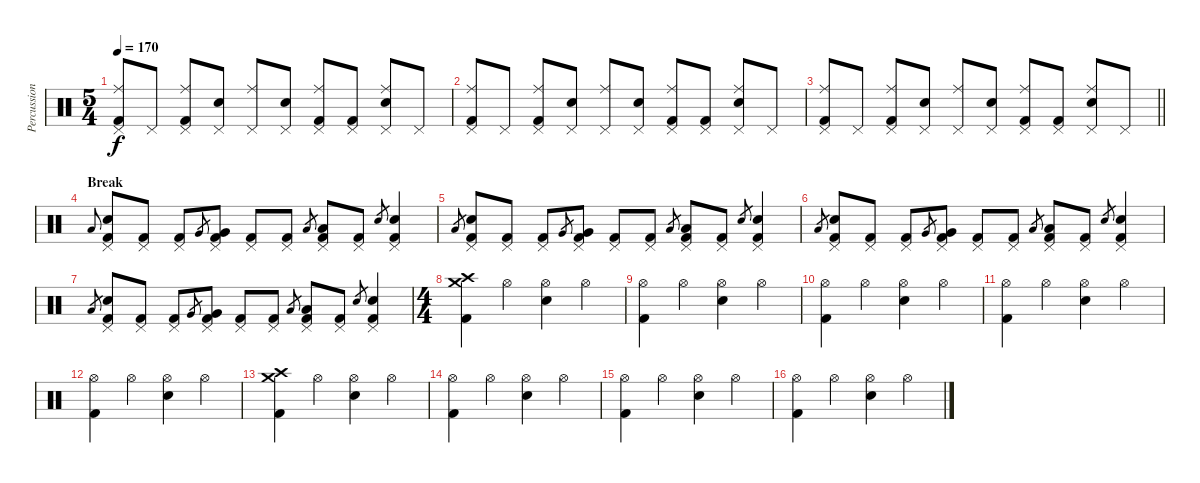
\track ("Percussion" "Percussion") {instrument percussion}
\staff {score}
\articulation defaults
\ts (5 4)
\tempo 170
\clef neutral
\ks c
("Ride (middle)" "Pedal Hi-Hat (hit)" "Kick (hit) 2").8{dy f} "Pedal Hi-Hat (hit)".8 ("Ride (middle)" "Pedal Hi-Hat (hit)" "Kick (hit) 2").8 ("Electric Snare (hit)" "Pedal Hi-Hat (hit)").8 ("Ride (middle)" "Pedal Hi-Hat (hit)").8 ("Electric Snare (hit)" "Pedal Hi-Hat (hit)").8 ("Ride (middle)" "Pedal Hi-Hat (hit)" "Kick (hit) 2").8 ("Pedal Hi-Hat (hit)" "Kick (hit) 2").8 ("Ride (middle)" "Electric Snare (hit)" "Pedal Hi-Hat (hit)").8 "Pedal Hi-Hat (hit)".8 |
("Ride (middle)" "Pedal Hi-Hat (hit)" "Kick (hit) 2").8 "Pedal Hi-Hat (hit)".8 ("Ride (middle)" "Pedal Hi-Hat (hit)" "Kick (hit) 2").8 ("Electric Snare (hit)" "Pedal Hi-Hat (hit)").8 ("Ride (middle)" "Pedal Hi-Hat (hit)").8 ("Electric Snare (hit)" "Pedal Hi-Hat (hit)").8 ("Ride (middle)" "Pedal Hi-Hat (hit)" "Kick (hit) 2").8 ("Pedal Hi-Hat (hit)" "Kick (hit) 2").8 ("Ride (middle)" "Electric Snare (hit)" "Pedal Hi-Hat (hit)").8 "Pedal Hi-Hat (hit)".8 |
\barLineRight lightlight
("Ride (middle)" "Pedal Hi-Hat (hit)" "Kick (hit) 2").8 "Pedal Hi-Hat (hit)".8 ("Ride (middle)" "Pedal Hi-Hat (hit)" "Kick (hit) 2").8 ("Electric Snare (hit)" "Pedal Hi-Hat (hit)").8 ("Ride (middle)" "Pedal Hi-Hat (hit)").8 ("Electric Snare (hit)" "Pedal Hi-Hat (hit)").8 ("Ride (middle)" "Pedal Hi-Hat (hit)" "Kick (hit) 2").8 ("Pedal Hi-Hat (hit)" "Kick (hit) 2").8 ("Ride (middle)" "Electric Snare (hit)" "Pedal Hi-Hat (hit)").8 "Pedal Hi-Hat (hit)".8 |
\section ("" "Break")
"Low Tom (hit)".8{gr onbeat} ("Electric Snare (hit)" "Pedal Hi-Hat (hit)" "Kick (hit) 2").8 ("Pedal Hi-Hat (hit)" "Kick (hit) 2").8 ("Pedal Hi-Hat (hit)" "Kick (hit) 2").8 "Very Low Tom (hit)".8{gr} ("Very Low Tom (hit)" "Pedal Hi-Hat (hit)" "Kick (hit) 2").8 ("Pedal Hi-Hat (hit)" "Kick (hit) 2").8 ("Pedal Hi-Hat (hit)" "Kick (hit) 2").8 "Low Floor Tom (hit)".8{gr} ("Low Floor Tom (hit)" "Pedal Hi-Hat (hit)" "Kick (hit) 2").8 ("Pedal Hi-Hat (hit)" "Kick (hit) 2").8 "Electric Snare (hit)".8{gr} ("Electric Snare (hit)" "Pedal Hi-Hat (hit)" "Kick (hit) 2").4 |
"Low Tom (hit)".8{gr} ("Electric Snare (hit)" "Pedal Hi-Hat (hit)" "Kick (hit) 2").8 ("Pedal Hi-Hat (hit)" "Kick (hit) 2").8 ("Pedal Hi-Hat (hit)" "Kick (hit) 2").8 "Very Low Tom (hit)".8{gr} ("Very Low Tom (hit)" "Pedal Hi-Hat (hit)" "Kick (hit) 2").8 ("Pedal Hi-Hat (hit)" "Kick (hit) 2").8 ("Pedal Hi-Hat (hit)" "Kick (hit) 2").8 "Low Floor Tom (hit)".8{gr} ("Low Floor Tom (hit)" "Pedal Hi-Hat (hit)" "Kick (hit) 2").8 ("Pedal Hi-Hat (hit)" "Kick (hit) 2").8 "Electric Snare (hit)".8{gr} ("Electric Snare (hit)" "Pedal Hi-Hat (hit)" "Kick (hit) 2").4 |
"Low Tom (hit)".8{gr} ("Electric Snare (hit)" "Pedal Hi-Hat (hit)" "Kick (hit) 2").8 ("Pedal Hi-Hat (hit)" "Kick (hit) 2").8 ("Pedal Hi-Hat (hit)" "Kick (hit) 2").8 "Very Low Tom (hit)".8{gr} ("Very Low Tom (hit)" "Pedal Hi-Hat (hit)" "Kick (hit) 2").8 ("Pedal Hi-Hat (hit)" "Kick (hit) 2").8 ("Pedal Hi-Hat (hit)" "Kick (hit) 2").8 "Low Floor Tom (hit)".8{gr} ("Low Floor Tom (hit)" "Pedal Hi-Hat (hit)" "Kick (hit) 2").8 ("Pedal Hi-Hat (hit)" "Kick (hit) 2").8 "Electric Snare (hit)".8{gr} ("Electric Snare (hit)" "Pedal Hi-Hat (hit)" "Kick (hit) 2").4 |
"Low Tom (hit)".8{gr} ("Electric Snare (hit)" "Pedal Hi-Hat (hit)" "Kick (hit) 2").8 ("Pedal Hi-Hat (hit)" "Kick (hit) 2").8 ("Pedal Hi-Hat (hit)" "Kick (hit) 2").8 "Very Low Tom (hit)".8{gr} ("Very Low Tom (hit)" "Pedal Hi-Hat (hit)" "Kick (hit) 2").8 ("Pedal Hi-Hat (hit)" "Kick (hit) 2").8 ("Pedal Hi-Hat (hit)" "Kick (hit) 2").8 "Low Floor Tom (hit)".8{gr} ("Low Floor Tom (hit)" "Pedal Hi-Hat (hit)" "Kick (hit) 2").8 ("Pedal Hi-Hat (hit)" "Kick (hit) 2").8 "Electric Snare (hit)".8{gr} ("Electric Snare (hit)" "Pedal Hi-Hat (hit)" "Kick (hit) 2").4 |
\ts (4 4)
("Crash medium (hit)" "Crash high (hit)" "Kick (hit) 2").4 "Hi-Hat (open)".4 ("Hi-Hat (open)" "Electric Snare (hit)").4 "Hi-Hat (open)".4 |
("Hi-Hat (open)" "Kick (hit) 2").4 "Hi-Hat (open)".4 ("Hi-Hat (open)" "Electric Snare (hit)").4 "Hi-Hat (open)".4 |
("Hi-Hat (open)" "Kick (hit) 2").4 "Hi-Hat (open)".4 ("Hi-Hat (open)" "Electric Snare (hit)").4 "Hi-Hat (open)".4 |
("Hi-Hat (open)" "Kick (hit) 2").4 "Hi-Hat (open)".4 ("Hi-Hat (open)" "Electric Snare (hit)").4 "Hi-Hat (open)".4 |
("Hi-Hat (open)" "Kick (hit) 2").4 "Hi-Hat (open)".4 ("Hi-Hat (open)" "Electric Snare (hit)").4 "Hi-Hat (open)".4 |
("Crash medium (hit)" "Crash high (hit)" "Kick (hit) 2").4 "Hi-Hat (open)".4 ("Hi-Hat (open)" "Electric Snare (hit)").4 "Hi-Hat (open)".4 |
("Hi-Hat (open)" "Kick (hit) 2").4 "Hi-Hat (open)".4 ("Hi-Hat (open)" "Electric Snare (hit)").4 "Hi-Hat (open)".4 |
("Hi-Hat (open)" "Kick (hit) 2").4 "Hi-Hat (open)".4 ("Hi-Hat (open)" "Electric Snare (hit)").4 "Hi-Hat (open)".4 |
("Hi-Hat (open)" "Kick (hit) 2").4 "Hi-Hat (open)".4 ("Hi-Hat (open)" "Electric Snare (hit)").4 "Hi-Hat (open)".4
